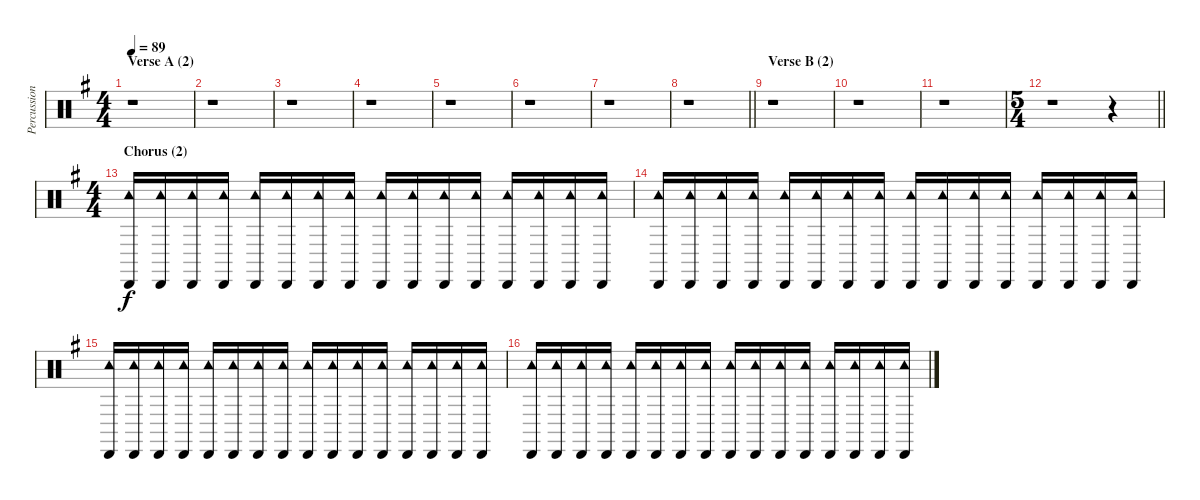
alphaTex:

\track ("Percussion" "Percussion") {instrument percussion}
\staff {score}
\articulation defaults
\ts (4 4)
\section ("" "Verse A (2)")
\tempo 89
\clef neutral
\ks g
r.1{dy f} |
r.1 |
r.1 |
r.1 |
r.1 |
r.1 |
r.1 |
\barLineRight lightlight
r.1 |
\section ("" "Verse B (2)")
r.1 |
r.1 |
r.1 |
\ts (5 4)
\barLineRight lightlight
r.1 r.4 |
\ts (4 4)
\section ("" "Chorus (2)")
("Tambourine (hit)" "Cabasa (hit)").16 ("Tambourine (hit)" "Cabasa (hit)").16 ("Tambourine (hit)" "Cabasa (hit)").16 ("Tambourine (hit)" "Cabasa (hit)").16 ("Tambourine (hit)" "Cabasa (hit)").16 ("Tambourine (hit)" "Cabasa (hit)").16 ("Tambourine (hit)" "Cabasa (hit)").16 ("Tambourine (hit)" "Cabasa (hit)").16 ("Tambourine (hit)" "Cabasa (hit)").16 ("Tambourine (hit)" "Cabasa (hit)").16 ("Tambourine (hit)" "Cabasa (hit)").16 ("Tambourine (hit)" "Cabasa (hit)").16 ("Tambourine (hit)" "Cabasa (hit)").16 ("Tambourine (hit)" "Cabasa (hit)").16 ("Tambourine (hit)" "Cabasa (hit)").16 ("Tambourine (hit)" "Cabasa (hit)").16 |
("Tambourine (hit)" "Cabasa (hit)").16 ("Tambourine (hit)" "Cabasa (hit)").16 ("Tambourine (hit)" "Cabasa (hit)").16 ("Tambourine (hit)" "Cabasa (hit)").16 ("Tambourine (hit)" "Cabasa (hit)").16 ("Tambourine (hit)" "Cabasa (hit)").16 ("Tambourine (hit)" "Cabasa (hit)").16 ("Tambourine (hit)" "Cabasa (hit)").16 ("Tambourine (hit)" "Cabasa (hit)").16 ("Tambourine (hit)" "Cabasa (hit)").16 ("Tambourine (hit)" "Cabasa (hit)").16 ("Tambourine (hit)" "Cabasa (hit)").16 ("Tambourine (hit)" "Cabasa (hit)").16 ("Tambourine (hit)" "Cabasa (hit)").16 ("Tambourine (hit)" "Cabasa (hit)").16 ("Tambourine (hit)" "Cabasa (hit)").16 |
("Tambourine (hit)" "Cabasa (hit)").16 ("Tambourine (hit)" "Cabasa (hit)").16 ("Tambourine (hit)" "Cabasa (hit)").16 ("Tambourine (hit)" "Cabasa (hit)").16 ("Tambourine (hit)" "Cabasa (hit)").16 ("Tambourine (hit)" "Cabasa (hit)").16 ("Tambourine (hit)" "Cabasa (hit)").16 ("Tambourine (hit)" "Cabasa (hit)").16 ("Tambourine (hit)" "Cabasa (hit)").16 ("Tambourine (hit)" "Cabasa (hit)").16 ("Tambourine (hit)" "Cabasa (hit)").16 ("Tambourine (hit)" "Cabasa (hit)").16 ("Tambourine (hit)" "Cabasa (hit)").16 ("Tambourine (hit)" "Cabasa (hit)").16 ("Tambourine (hit)" "Cabasa (hit)").16 ("Tambourine (hit)" "Cabasa (hit)").16 |
("Tambourine (hit)" "Cabasa (hit)").16 ("Tambourine (hit)" "Cabasa (hit)").16 ("Tambourine (hit)" "Cabasa (hit)").16 ("Tambourine (hit)" "Cabasa (hit)").16 ("Tambourine (hit)" "Cabasa (hit)").16 ("Tambourine (hit)" "Cabasa (hit)").16 ("Tambourine (hit)" "Cabasa (hit)").16 ("Tambourine (hit)" "Cabasa (hit)").16 ("Tambourine (hit)" "Cabasa (hit)").16 ("Tambourine (hit)" "Cabasa (hit)").16 ("Tambourine (hit)" "Cabasa (hit)").16 ("Tambourine (hit)" "Cabasa (hit)").16 ("Tambourine (hit)" "Cabasa (hit)").16 ("Tambourine (hit)" "Cabasa (hit)").16 ("Tambourine (hit)" "Cabasa (hit)").16 ("Tambourine (hit)" "Cabasa (hit)").16
